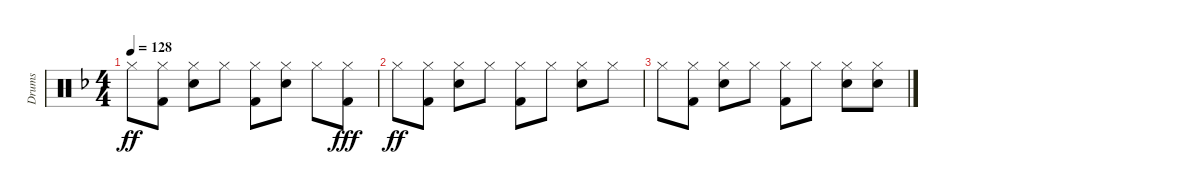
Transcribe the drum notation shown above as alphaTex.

\track ("Drums" "Drums") {instrument percussion}
\staff {score}
\articulation defaults
\ts (4 4)
\tempo 128
\clef neutral
\ks f "Hi-Hat (closed)".8{dy ff}
("Hi-Hat (closed)" "Kick (hit) 2").8 ("Hi-Hat (closed)" "Snare (hit) 2").8 "Hi-Hat (closed)".8 ("Hi-Hat (closed)" "Kick (hit) 2").8 ("Hi-Hat (closed)" "Snare (hit) 2").8 "Hi-Hat (closed)".8 ("Hi-Hat (closed)" "Kick (hit) 2").8{dy fff} |
"Hi-Hat (closed)".8{dy ff} ("Hi-Hat (closed)" "Kick (hit) 2").8 ("Hi-Hat (closed)" "Snare (hit) 2").8 "Hi-Hat (closed)".8 ("Hi-Hat (closed)" "Kick (hit) 2").8 "Hi-Hat (closed)".8 ("Hi-Hat (closed)" "Snare (hit) 2").8 "Hi-Hat (closed)".8 |
"Hi-Hat (closed)".8 ("Hi-Hat (closed)" "Kick (hit) 2").8 ("Hi-Hat (closed)" "Snare (hit) 2").8 "Hi-Hat (closed)".8 ("Hi-Hat (closed)" "Kick (hit) 2").8 "Hi-Hat (closed)".8 ("Hi-Hat (closed)" "Snare (hit) 2").8 ("Hi-Hat (closed)" "Snare (hit) 2").8
